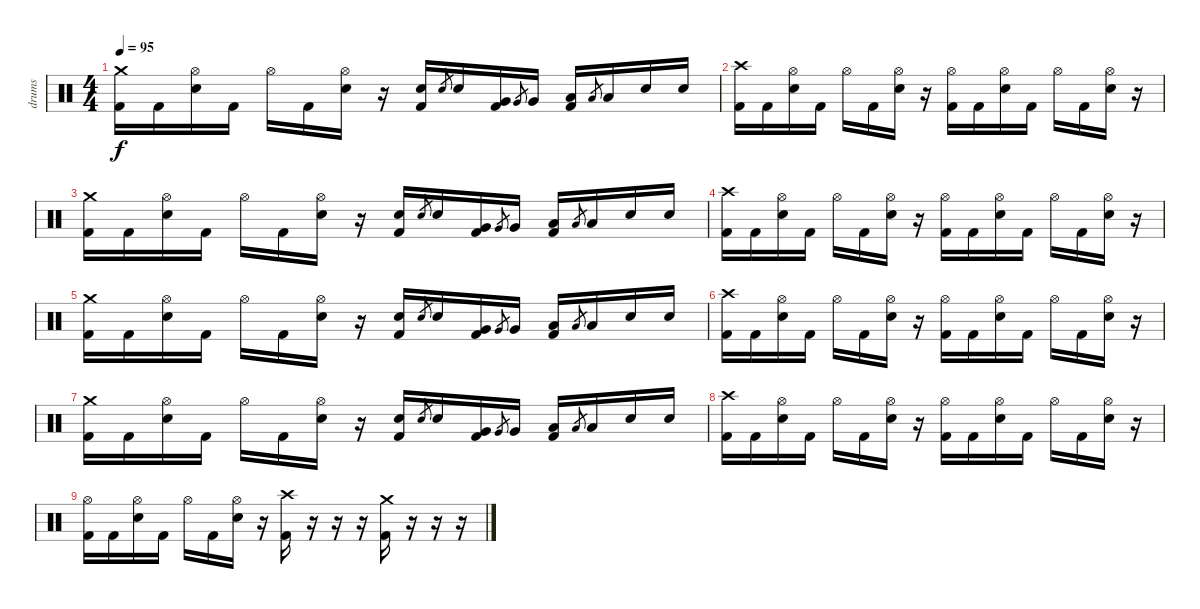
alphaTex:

\track ("drums" "drums") {instrument percussion}
\staff {score}
\articulation defaults
\ts (4 4)
\tempo 95
\clef neutral
\ks c
("Kick (hit) 2" "Crash medium (hit)").16{dy f} "Kick (hit) 2".16 ("Electric Snare (hit)" "Hi-Hat (open)").16 "Kick (hit) 2".16 "Hi-Hat (open)".16 "Kick (hit) 2".16 ("Electric Snare (hit)" "Hi-Hat (open)").16 r.16 ("Kick (hit) 2" "Electric Snare (hit)").16 "Electric Snare (hit)".8{gr} "Electric Snare (hit)".16 ("Kick (hit) 2" "Very Low Tom (hit)").16 "Very Low Tom (hit)".8{gr} "Very Low Tom (hit)".16 ("Kick (hit) 2" "Low Tom (hit)").16 "Low Tom (hit)".8{gr} "Low Tom (hit)".16 "Electric Snare (hit)".16 "Electric Snare (hit)".16 |
("Kick (hit) 2" "Crash high (hit)").16 "Kick (hit) 2".16 ("Electric Snare (hit)" "Hi-Hat (open)").16 "Kick (hit) 2".16 "Hi-Hat (open)".16 "Kick (hit) 2".16 ("Electric Snare (hit)" "Hi-Hat (open)").16 r.16 ("Kick (hit) 2" "Hi-Hat (open)").16 "Kick (hit) 2".16 ("Electric Snare (hit)" "Hi-Hat (open)").16 "Kick (hit) 2".16 "Hi-Hat (open)".16 "Kick (hit) 2".16 ("Electric Snare (hit)" "Hi-Hat (open)").16 r.16 |
("Kick (hit) 2" "Crash medium (hit)").16 "Kick (hit) 2".16 ("Electric Snare (hit)" "Hi-Hat (open)").16 "Kick (hit) 2".16 "Hi-Hat (open)".16 "Kick (hit) 2".16 ("Electric Snare (hit)" "Hi-Hat (open)").16 r.16 ("Kick (hit) 2" "Electric Snare (hit)").16 "Electric Snare (hit)".8{gr} "Electric Snare (hit)".16 ("Kick (hit) 2" "Very Low Tom (hit)").16 "Very Low Tom (hit)".8{gr} "Very Low Tom (hit)".16 ("Kick (hit) 2" "Low Tom (hit)").16 "Low Tom (hit)".8{gr} "Low Tom (hit)".16 "Electric Snare (hit)".16 "Electric Snare (hit)".16 |
("Kick (hit) 2" "Crash high (hit)").16 "Kick (hit) 2".16 ("Electric Snare (hit)" "Hi-Hat (open)").16 "Kick (hit) 2".16 "Hi-Hat (open)".16 "Kick (hit) 2".16 ("Electric Snare (hit)" "Hi-Hat (open)").16 r.16 ("Kick (hit) 2" "Hi-Hat (open)").16 "Kick (hit) 2".16 ("Electric Snare (hit)" "Hi-Hat (open)").16 "Kick (hit) 2".16 "Hi-Hat (open)".16 "Kick (hit) 2".16 ("Electric Snare (hit)" "Hi-Hat (open)").16 r.16 |
("Kick (hit) 2" "Crash medium (hit)").16 "Kick (hit) 2".16 ("Electric Snare (hit)" "Hi-Hat (open)").16 "Kick (hit) 2".16 "Hi-Hat (open)".16 "Kick (hit) 2".16 ("Electric Snare (hit)" "Hi-Hat (open)").16 r.16 ("Kick (hit) 2" "Electric Snare (hit)").16 "Electric Snare (hit)".8{gr} "Electric Snare (hit)".16 ("Kick (hit) 2" "Very Low Tom (hit)").16 "Very Low Tom (hit)".8{gr} "Very Low Tom (hit)".16 ("Kick (hit) 2" "Low Tom (hit)").16 "Low Tom (hit)".8{gr} "Low Tom (hit)".16 "Electric Snare (hit)".16 "Electric Snare (hit)".16 |
("Kick (hit) 2" "Crash high (hit)").16 "Kick (hit) 2".16 ("Electric Snare (hit)" "Hi-Hat (open)").16 "Kick (hit) 2".16 "Hi-Hat (open)".16 "Kick (hit) 2".16 ("Electric Snare (hit)" "Hi-Hat (open)").16 r.16 ("Kick (hit) 2" "Hi-Hat (open)").16 "Kick (hit) 2".16 ("Electric Snare (hit)" "Hi-Hat (open)").16 "Kick (hit) 2".16 "Hi-Hat (open)".16 "Kick (hit) 2".16 ("Electric Snare (hit)" "Hi-Hat (open)").16 r.16 |
("Kick (hit) 2" "Crash medium (hit)").16 "Kick (hit) 2".16 ("Electric Snare (hit)" "Hi-Hat (open)").16 "Kick (hit) 2".16 "Hi-Hat (open)".16 "Kick (hit) 2".16 ("Electric Snare (hit)" "Hi-Hat (open)").16 r.16 ("Kick (hit) 2" "Electric Snare (hit)").16 "Electric Snare (hit)".8{gr} "Electric Snare (hit)".16 ("Kick (hit) 2" "Very Low Tom (hit)").16 "Very Low Tom (hit)".8{gr} "Very Low Tom (hit)".16 ("Kick (hit) 2" "Low Tom (hit)").16 "Low Tom (hit)".8{gr} "Low Tom (hit)".16 "Electric Snare (hit)".16 "Electric Snare (hit)".16 |
("Kick (hit) 2" "Crash high (hit)").16 "Kick (hit) 2".16 ("Electric Snare (hit)" "Hi-Hat (open)").16 "Kick (hit) 2".16 "Hi-Hat (open)".16 "Kick (hit) 2".16 ("Electric Snare (hit)" "Hi-Hat (open)").16 r.16 ("Kick (hit) 2" "Hi-Hat (open)").16 "Kick (hit) 2".16 ("Electric Snare (hit)" "Hi-Hat (open)").16 "Kick (hit) 2".16 "Hi-Hat (open)".16 "Kick (hit) 2".16 ("Electric Snare (hit)" "Hi-Hat (open)").16 r.16 |
("Kick (hit) 2" "Hi-Hat (open)").16 "Kick (hit) 2".16 ("Electric Snare (hit)" "Hi-Hat (open)").16 "Kick (hit) 2".16 "Hi-Hat (open)".16 "Kick (hit) 2".16 ("Electric Snare (hit)" "Hi-Hat (open)").16 r.16 ("Kick (hit) 2" "Crash high (hit)").16 r.16 r.16 r.16 ("Kick (hit) 2" "Crash medium (hit)").16 r.16 r.16 r.16
